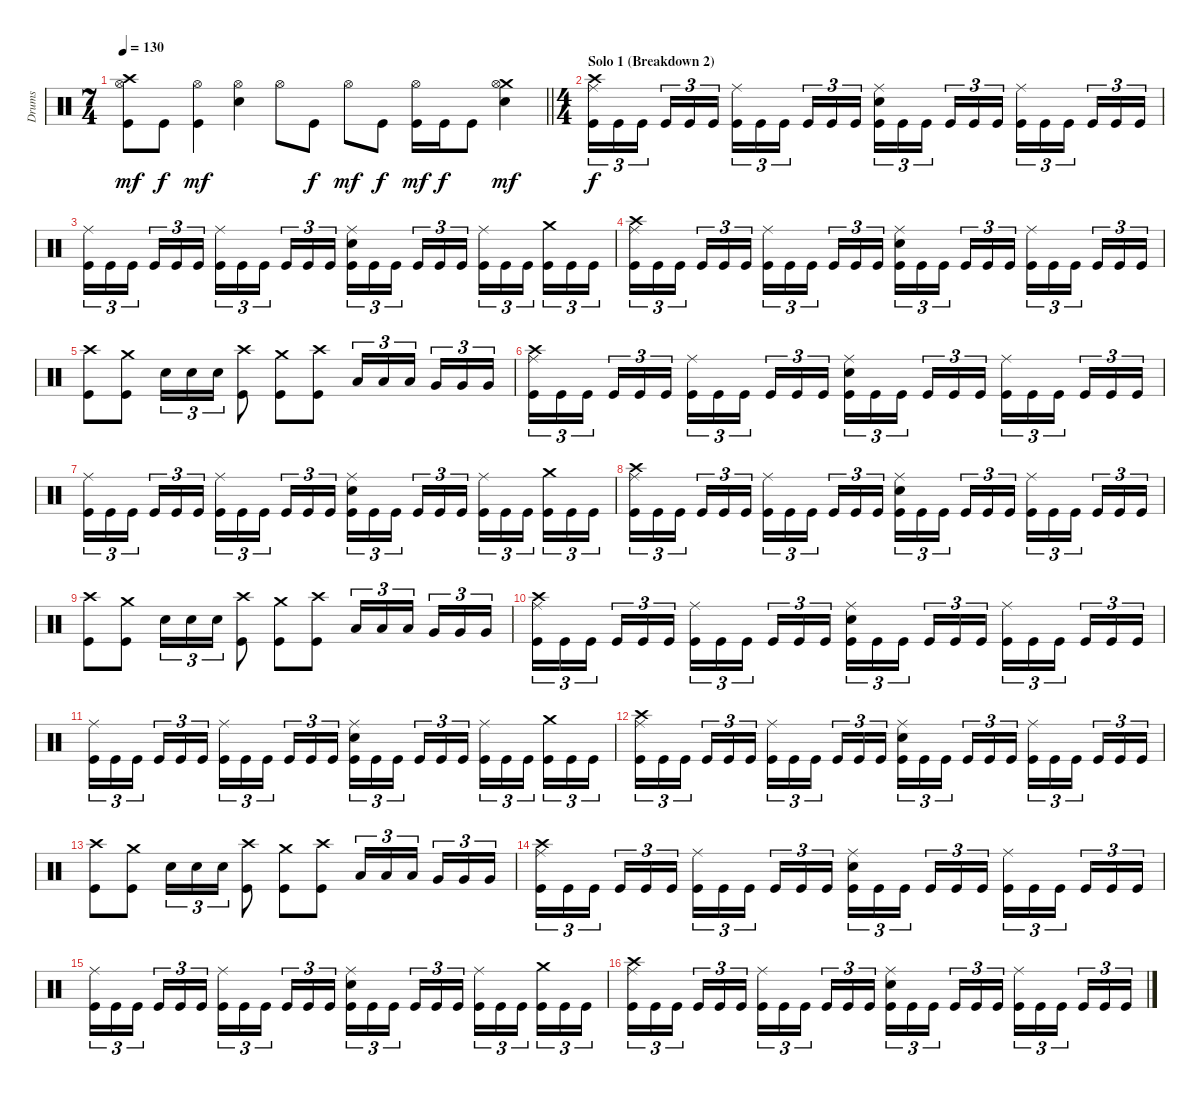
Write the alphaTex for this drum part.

\track ("Drums" "Drums") {instrument percussion}
\staff {score}
\articulation defaults
\ts (7 4)
\tempo 130
\clef neutral
\barLineRight lightlight
\ks c
("Crash high (hit)" "Hi-Hat (open)" "Kick (hit)").8{dy mf} "Kick (hit)".8{dy f} ("Hi-Hat (open)" "Kick (hit)").4{dy mf} ("Hi-Hat (open)" "Electric Snare (hit)").4 "Hi-Hat (open)".8 "Kick (hit)".8{dy f} "Hi-Hat (open)".8{dy mf} "Kick (hit)".8{dy f} ("Hi-Hat (open)" "Kick (hit)").16{dy mf} "Kick (hit)".16{dy f} "Kick (hit)".8 ("Crash medium (hit)" "Hi-Hat (open)" "Electric Snare (hit)").4{dy mf} |
\ts (4 4)
\section ("" "Solo 1 (Breakdown 2)")
("Crash high (hit)" "Ride (middle)" "Kick (hit)").16{tu (3 2) dy f} "Kick (hit)".16{tu (3 2)} "Kick (hit)".16{tu (3 2) beam splitsecondary} "Kick (hit)".16{tu (3 2)} "Kick (hit)".16{tu (3 2)} "Kick (hit)".16{tu (3 2)} ("Ride (middle)" "Kick (hit)").16{tu (3 2)} "Kick (hit)".16{tu (3 2)} "Kick (hit)".16{tu (3 2) beam splitsecondary} "Kick (hit)".16{tu (3 2)} "Kick (hit)".16{tu (3 2)} "Kick (hit)".16{tu (3 2)} ("Ride (middle)" "Electric Snare (hit)" "Kick (hit)").16{tu (3 2)} "Kick (hit)".16{tu (3 2)} "Kick (hit)".16{tu (3 2) beam splitsecondary} "Kick (hit)".16{tu (3 2)} "Kick (hit)".16{tu (3 2)} "Kick (hit)".16{tu (3 2)} ("Ride (middle)" "Kick (hit)").16{tu (3 2)} "Kick (hit)".16{tu (3 2)} "Kick (hit)".16{tu (3 2) beam splitsecondary} "Kick (hit)".16{tu (3 2)} "Kick (hit)".16{tu (3 2)} "Kick (hit)".16{tu (3 2)} |
("Ride (middle)" "Kick (hit)").16{tu (3 2)} "Kick (hit)".16{tu (3 2)} "Kick (hit)".16{tu (3 2) beam splitsecondary} "Kick (hit)".16{tu (3 2)} "Kick (hit)".16{tu (3 2)} "Kick (hit)".16{tu (3 2)} ("Ride (middle)" "Kick (hit)").16{tu (3 2)} "Kick (hit)".16{tu (3 2)} "Kick (hit)".16{tu (3 2) beam splitsecondary} "Kick (hit)".16{tu (3 2)} "Kick (hit)".16{tu (3 2)} "Kick (hit)".16{tu (3 2)} ("Ride (middle)" "Electric Snare (hit)" "Kick (hit)").16{tu (3 2)} "Kick (hit)".16{tu (3 2)} "Kick (hit)".16{tu (3 2) beam splitsecondary} "Kick (hit)".16{tu (3 2)} "Kick (hit)".16{tu (3 2)} "Kick (hit)".16{tu (3 2)} ("Ride (middle)" "Kick (hit)").16{tu (3 2)} "Kick (hit)".16{tu (3 2)} "Kick (hit)".16{tu (3 2) beam splitsecondary} ("Crash medium (hit)" "Kick (hit)").16{tu (3 2)} "Kick (hit)".16{tu (3 2)} "Kick (hit)".16{tu (3 2)} |
("Crash high (hit)" "Ride (middle)" "Kick (hit)").16{tu (3 2)} "Kick (hit)".16{tu (3 2)} "Kick (hit)".16{tu (3 2) beam splitsecondary} "Kick (hit)".16{tu (3 2)} "Kick (hit)".16{tu (3 2)} "Kick (hit)".16{tu (3 2)} ("Ride (middle)" "Kick (hit)").16{tu (3 2)} "Kick (hit)".16{tu (3 2)} "Kick (hit)".16{tu (3 2) beam splitsecondary} "Kick (hit)".16{tu (3 2)} "Kick (hit)".16{tu (3 2)} "Kick (hit)".16{tu (3 2)} ("Ride (middle)" "Electric Snare (hit)" "Kick (hit)").16{tu (3 2)} "Kick (hit)".16{tu (3 2)} "Kick (hit)".16{tu (3 2) beam splitsecondary} "Kick (hit)".16{tu (3 2)} "Kick (hit)".16{tu (3 2)} "Kick (hit)".16{tu (3 2)} ("Ride (middle)" "Kick (hit)").16{tu (3 2)} "Kick (hit)".16{tu (3 2)} "Kick (hit)".16{tu (3 2) beam splitsecondary} "Kick (hit)".16{tu (3 2)} "Kick (hit)".16{tu (3 2)} "Kick (hit)".16{tu (3 2)} |
("Crash high (hit)" "Kick (hit)").8 ("Crash medium (hit)" "Kick (hit)").8 "Electric Snare (hit)".16{tu (3 2)} "Electric Snare (hit)".16{tu (3 2)} "Electric Snare (hit)".16{tu (3 2)} ("Crash high (hit)" "Kick (hit)").8 ("Crash medium (hit)" "Kick (hit)").8 ("Crash high (hit)" "Kick (hit)").8 "Low Tom (hit)".16{tu (3 2)} "Low Tom (hit)".16{tu (3 2)} "Low Tom (hit)".16{tu (3 2) beam splitsecondary} "Very Low Tom (hit)".16{tu (3 2)} "Very Low Tom (hit)".16{tu (3 2)} "Very Low Tom (hit)".16{tu (3 2)} |
("Crash high (hit)" "Ride (middle)" "Kick (hit)").16{tu (3 2)} "Kick (hit)".16{tu (3 2)} "Kick (hit)".16{tu (3 2) beam splitsecondary} "Kick (hit)".16{tu (3 2)} "Kick (hit)".16{tu (3 2)} "Kick (hit)".16{tu (3 2)} ("Ride (middle)" "Kick (hit)").16{tu (3 2)} "Kick (hit)".16{tu (3 2)} "Kick (hit)".16{tu (3 2) beam splitsecondary} "Kick (hit)".16{tu (3 2)} "Kick (hit)".16{tu (3 2)} "Kick (hit)".16{tu (3 2)} ("Ride (middle)" "Electric Snare (hit)" "Kick (hit)").16{tu (3 2)} "Kick (hit)".16{tu (3 2)} "Kick (hit)".16{tu (3 2) beam splitsecondary} "Kick (hit)".16{tu (3 2)} "Kick (hit)".16{tu (3 2)} "Kick (hit)".16{tu (3 2)} ("Ride (middle)" "Kick (hit)").16{tu (3 2)} "Kick (hit)".16{tu (3 2)} "Kick (hit)".16{tu (3 2) beam splitsecondary} "Kick (hit)".16{tu (3 2)} "Kick (hit)".16{tu (3 2)} "Kick (hit)".16{tu (3 2)} |
("Ride (middle)" "Kick (hit)").16{tu (3 2)} "Kick (hit)".16{tu (3 2)} "Kick (hit)".16{tu (3 2) beam splitsecondary} "Kick (hit)".16{tu (3 2)} "Kick (hit)".16{tu (3 2)} "Kick (hit)".16{tu (3 2)} ("Ride (middle)" "Kick (hit)").16{tu (3 2)} "Kick (hit)".16{tu (3 2)} "Kick (hit)".16{tu (3 2) beam splitsecondary} "Kick (hit)".16{tu (3 2)} "Kick (hit)".16{tu (3 2)} "Kick (hit)".16{tu (3 2)} ("Ride (middle)" "Electric Snare (hit)" "Kick (hit)").16{tu (3 2)} "Kick (hit)".16{tu (3 2)} "Kick (hit)".16{tu (3 2) beam splitsecondary} "Kick (hit)".16{tu (3 2)} "Kick (hit)".16{tu (3 2)} "Kick (hit)".16{tu (3 2)} ("Ride (middle)" "Kick (hit)").16{tu (3 2)} "Kick (hit)".16{tu (3 2)} "Kick (hit)".16{tu (3 2) beam splitsecondary} ("Crash medium (hit)" "Kick (hit)").16{tu (3 2)} "Kick (hit)".16{tu (3 2)} "Kick (hit)".16{tu (3 2)} |
("Crash high (hit)" "Ride (middle)" "Kick (hit)").16{tu (3 2)} "Kick (hit)".16{tu (3 2)} "Kick (hit)".16{tu (3 2) beam splitsecondary} "Kick (hit)".16{tu (3 2)} "Kick (hit)".16{tu (3 2)} "Kick (hit)".16{tu (3 2)} ("Ride (middle)" "Kick (hit)").16{tu (3 2)} "Kick (hit)".16{tu (3 2)} "Kick (hit)".16{tu (3 2) beam splitsecondary} "Kick (hit)".16{tu (3 2)} "Kick (hit)".16{tu (3 2)} "Kick (hit)".16{tu (3 2)} ("Ride (middle)" "Electric Snare (hit)" "Kick (hit)").16{tu (3 2)} "Kick (hit)".16{tu (3 2)} "Kick (hit)".16{tu (3 2) beam splitsecondary} "Kick (hit)".16{tu (3 2)} "Kick (hit)".16{tu (3 2)} "Kick (hit)".16{tu (3 2)} ("Ride (middle)" "Kick (hit)").16{tu (3 2)} "Kick (hit)".16{tu (3 2)} "Kick (hit)".16{tu (3 2) beam splitsecondary} "Kick (hit)".16{tu (3 2)} "Kick (hit)".16{tu (3 2)} "Kick (hit)".16{tu (3 2)} |
("Crash high (hit)" "Kick (hit)").8 ("Crash medium (hit)" "Kick (hit)").8 "Electric Snare (hit)".16{tu (3 2)} "Electric Snare (hit)".16{tu (3 2)} "Electric Snare (hit)".16{tu (3 2)} ("Crash high (hit)" "Kick (hit)").8 ("Crash medium (hit)" "Kick (hit)").8 ("Crash high (hit)" "Kick (hit)").8 "Low Tom (hit)".16{tu (3 2)} "Low Tom (hit)".16{tu (3 2)} "Low Tom (hit)".16{tu (3 2) beam splitsecondary} "Very Low Tom (hit)".16{tu (3 2)} "Very Low Tom (hit)".16{tu (3 2)} "Very Low Tom (hit)".16{tu (3 2)} |
("Crash high (hit)" "Ride (middle)" "Kick (hit)").16{tu (3 2)} "Kick (hit)".16{tu (3 2)} "Kick (hit)".16{tu (3 2) beam splitsecondary} "Kick (hit)".16{tu (3 2)} "Kick (hit)".16{tu (3 2)} "Kick (hit)".16{tu (3 2)} ("Ride (middle)" "Kick (hit)").16{tu (3 2)} "Kick (hit)".16{tu (3 2)} "Kick (hit)".16{tu (3 2) beam splitsecondary} "Kick (hit)".16{tu (3 2)} "Kick (hit)".16{tu (3 2)} "Kick (hit)".16{tu (3 2)} ("Ride (middle)" "Electric Snare (hit)" "Kick (hit)").16{tu (3 2)} "Kick (hit)".16{tu (3 2)} "Kick (hit)".16{tu (3 2) beam splitsecondary} "Kick (hit)".16{tu (3 2)} "Kick (hit)".16{tu (3 2)} "Kick (hit)".16{tu (3 2)} ("Ride (middle)" "Kick (hit)").16{tu (3 2)} "Kick (hit)".16{tu (3 2)} "Kick (hit)".16{tu (3 2) beam splitsecondary} "Kick (hit)".16{tu (3 2)} "Kick (hit)".16{tu (3 2)} "Kick (hit)".16{tu (3 2)} |
("Ride (middle)" "Kick (hit)").16{tu (3 2)} "Kick (hit)".16{tu (3 2)} "Kick (hit)".16{tu (3 2) beam splitsecondary} "Kick (hit)".16{tu (3 2)} "Kick (hit)".16{tu (3 2)} "Kick (hit)".16{tu (3 2)} ("Ride (middle)" "Kick (hit)").16{tu (3 2)} "Kick (hit)".16{tu (3 2)} "Kick (hit)".16{tu (3 2) beam splitsecondary} "Kick (hit)".16{tu (3 2)} "Kick (hit)".16{tu (3 2)} "Kick (hit)".16{tu (3 2)} ("Ride (middle)" "Electric Snare (hit)" "Kick (hit)").16{tu (3 2)} "Kick (hit)".16{tu (3 2)} "Kick (hit)".16{tu (3 2) beam splitsecondary} "Kick (hit)".16{tu (3 2)} "Kick (hit)".16{tu (3 2)} "Kick (hit)".16{tu (3 2)} ("Ride (middle)" "Kick (hit)").16{tu (3 2)} "Kick (hit)".16{tu (3 2)} "Kick (hit)".16{tu (3 2) beam splitsecondary} ("Crash medium (hit)" "Kick (hit)").16{tu (3 2)} "Kick (hit)".16{tu (3 2)} "Kick (hit)".16{tu (3 2)} |
("Crash high (hit)" "Ride (middle)" "Kick (hit)").16{tu (3 2)} "Kick (hit)".16{tu (3 2)} "Kick (hit)".16{tu (3 2) beam splitsecondary} "Kick (hit)".16{tu (3 2)} "Kick (hit)".16{tu (3 2)} "Kick (hit)".16{tu (3 2)} ("Ride (middle)" "Kick (hit)").16{tu (3 2)} "Kick (hit)".16{tu (3 2)} "Kick (hit)".16{tu (3 2) beam splitsecondary} "Kick (hit)".16{tu (3 2)} "Kick (hit)".16{tu (3 2)} "Kick (hit)".16{tu (3 2)} ("Ride (middle)" "Electric Snare (hit)" "Kick (hit)").16{tu (3 2)} "Kick (hit)".16{tu (3 2)} "Kick (hit)".16{tu (3 2) beam splitsecondary} "Kick (hit)".16{tu (3 2)} "Kick (hit)".16{tu (3 2)} "Kick (hit)".16{tu (3 2)} ("Ride (middle)" "Kick (hit)").16{tu (3 2)} "Kick (hit)".16{tu (3 2)} "Kick (hit)".16{tu (3 2) beam splitsecondary} "Kick (hit)".16{tu (3 2)} "Kick (hit)".16{tu (3 2)} "Kick (hit)".16{tu (3 2)} |
("Crash high (hit)" "Kick (hit)").8 ("Crash medium (hit)" "Kick (hit)").8 "Electric Snare (hit)".16{tu (3 2)} "Electric Snare (hit)".16{tu (3 2)} "Electric Snare (hit)".16{tu (3 2)} ("Crash high (hit)" "Kick (hit)").8 ("Crash medium (hit)" "Kick (hit)").8 ("Crash high (hit)" "Kick (hit)").8 "Low Tom (hit)".16{tu (3 2)} "Low Tom (hit)".16{tu (3 2)} "Low Tom (hit)".16{tu (3 2) beam splitsecondary} "Very Low Tom (hit)".16{tu (3 2)} "Very Low Tom (hit)".16{tu (3 2)} "Very Low Tom (hit)".16{tu (3 2)} |
("Crash high (hit)" "Ride (middle)" "Kick (hit)").16{tu (3 2)} "Kick (hit)".16{tu (3 2)} "Kick (hit)".16{tu (3 2) beam splitsecondary} "Kick (hit)".16{tu (3 2)} "Kick (hit)".16{tu (3 2)} "Kick (hit)".16{tu (3 2)} ("Ride (middle)" "Kick (hit)").16{tu (3 2)} "Kick (hit)".16{tu (3 2)} "Kick (hit)".16{tu (3 2) beam splitsecondary} "Kick (hit)".16{tu (3 2)} "Kick (hit)".16{tu (3 2)} "Kick (hit)".16{tu (3 2)} ("Ride (middle)" "Electric Snare (hit)" "Kick (hit)").16{tu (3 2)} "Kick (hit)".16{tu (3 2)} "Kick (hit)".16{tu (3 2) beam splitsecondary} "Kick (hit)".16{tu (3 2)} "Kick (hit)".16{tu (3 2)} "Kick (hit)".16{tu (3 2)} ("Ride (middle)" "Kick (hit)").16{tu (3 2)} "Kick (hit)".16{tu (3 2)} "Kick (hit)".16{tu (3 2) beam splitsecondary} "Kick (hit)".16{tu (3 2)} "Kick (hit)".16{tu (3 2)} "Kick (hit)".16{tu (3 2)} |
("Ride (middle)" "Kick (hit)").16{tu (3 2)} "Kick (hit)".16{tu (3 2)} "Kick (hit)".16{tu (3 2) beam splitsecondary} "Kick (hit)".16{tu (3 2)} "Kick (hit)".16{tu (3 2)} "Kick (hit)".16{tu (3 2)} ("Ride (middle)" "Kick (hit)").16{tu (3 2)} "Kick (hit)".16{tu (3 2)} "Kick (hit)".16{tu (3 2) beam splitsecondary} "Kick (hit)".16{tu (3 2)} "Kick (hit)".16{tu (3 2)} "Kick (hit)".16{tu (3 2)} ("Ride (middle)" "Electric Snare (hit)" "Kick (hit)").16{tu (3 2)} "Kick (hit)".16{tu (3 2)} "Kick (hit)".16{tu (3 2) beam splitsecondary} "Kick (hit)".16{tu (3 2)} "Kick (hit)".16{tu (3 2)} "Kick (hit)".16{tu (3 2)} ("Ride (middle)" "Kick (hit)").16{tu (3 2)} "Kick (hit)".16{tu (3 2)} "Kick (hit)".16{tu (3 2) beam splitsecondary} ("Crash medium (hit)" "Kick (hit)").16{tu (3 2)} "Kick (hit)".16{tu (3 2)} "Kick (hit)".16{tu (3 2)} |
("Crash high (hit)" "Ride (middle)" "Kick (hit)").16{tu (3 2)} "Kick (hit)".16{tu (3 2)} "Kick (hit)".16{tu (3 2) beam splitsecondary} "Kick (hit)".16{tu (3 2)} "Kick (hit)".16{tu (3 2)} "Kick (hit)".16{tu (3 2)} ("Ride (middle)" "Kick (hit)").16{tu (3 2)} "Kick (hit)".16{tu (3 2)} "Kick (hit)".16{tu (3 2) beam splitsecondary} "Kick (hit)".16{tu (3 2)} "Kick (hit)".16{tu (3 2)} "Kick (hit)".16{tu (3 2)} ("Ride (middle)" "Electric Snare (hit)" "Kick (hit)").16{tu (3 2)} "Kick (hit)".16{tu (3 2)} "Kick (hit)".16{tu (3 2) beam splitsecondary} "Kick (hit)".16{tu (3 2)} "Kick (hit)".16{tu (3 2)} "Kick (hit)".16{tu (3 2)} ("Ride (middle)" "Kick (hit)").16{tu (3 2)} "Kick (hit)".16{tu (3 2)} "Kick (hit)".16{tu (3 2) beam splitsecondary} "Kick (hit)".16{tu (3 2)} "Kick (hit)".16{tu (3 2)} "Kick (hit)".16{tu (3 2)}
